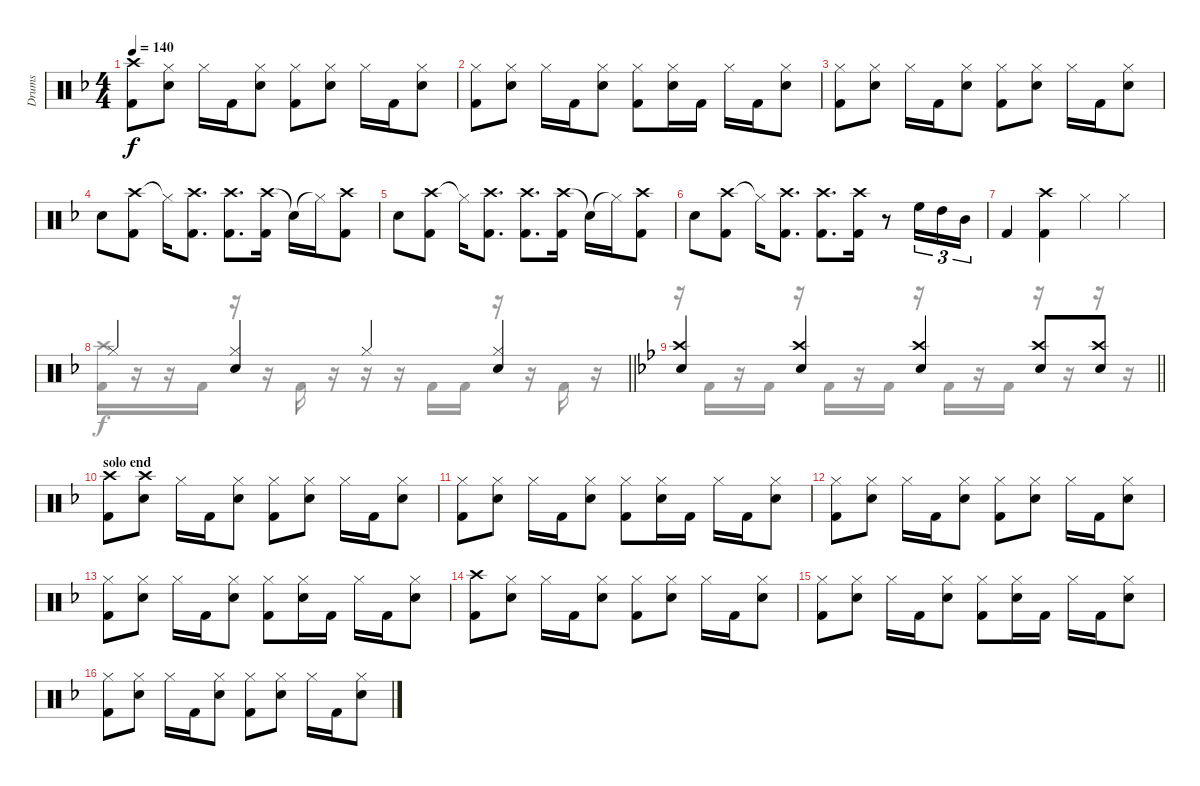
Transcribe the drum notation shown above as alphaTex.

\track ("Drums" "Drums") {instrument percussion}
\staff {score}
\articulation defaults
\voice
\ts (4 4)
\tempo 140
\clef neutral
\ks dminor
("Crash high (hit)" "Kick (hit) 2").8{dy f} ("Hi-Hat (closed)" "Snare (hit) 2").8 "Hi-Hat (closed)".16 "Kick (hit) 2".16 ("Hi-Hat (closed)" "Snare (hit) 2").8 ("Hi-Hat (closed)" "Kick (hit) 2").8 ("Hi-Hat (closed)" "Snare (hit) 2").8 "Hi-Hat (closed)".16 "Kick (hit) 2".16 ("Hi-Hat (closed)" "Snare (hit) 2").8 |
("Hi-Hat (closed)" "Kick (hit) 2").8 ("Hi-Hat (closed)" "Snare (hit) 2").8 "Hi-Hat (closed)".16 "Kick (hit) 2".16 ("Hi-Hat (closed)" "Snare (hit) 2").8 ("Hi-Hat (closed)" "Kick (hit) 2").8 ("Hi-Hat (closed)" "Snare (hit) 2").16 "Kick (hit) 2".16 "Hi-Hat (closed)".16 "Kick (hit) 2".16 ("Hi-Hat (closed)" "Snare (hit) 2").8 |
("Hi-Hat (closed)" "Kick (hit) 2").8 ("Hi-Hat (closed)" "Snare (hit) 2").8 "Hi-Hat (closed)".16 "Kick (hit) 2".16 ("Hi-Hat (closed)" "Snare (hit) 2").8 ("Hi-Hat (closed)" "Kick (hit) 2").8 ("Hi-Hat (closed)" "Snare (hit) 2").8 "Hi-Hat (closed)".16 "Kick (hit) 2".16 ("Hi-Hat (closed)" "Snare (hit) 2").8 |
"Snare (hit) 2".8 ("Crash high (hit)" "Kick (hit) 2").8 "Hi-Hat (closed)"{t}.16 ("Crash high (hit)" "Kick (hit) 2").8{d} ("Crash high (hit)" "Kick (hit) 2").8{d} ("Crash high (hit)" "Kick (hit) 2").16 "Snare (hit)"{t}.16 "Hi-Hat (closed)"{t}.16 ("Crash high (hit)" "Kick (hit) 2").8 |
"Snare (hit) 2".8 ("Crash high (hit)" "Kick (hit) 2").8 "Hi-Hat (closed)"{t}.16 ("Crash high (hit)" "Kick (hit) 2").8{d} ("Crash high (hit)" "Kick (hit) 2").8{d} ("Crash high (hit)" "Kick (hit) 2").16 "Snare (hit)"{t}.16 "Hi-Hat (closed)"{t}.16 ("Crash high (hit)" "Kick (hit) 2").8 |
"Snare (hit) 2".8 ("Crash high (hit)" "Kick (hit) 2").8 "Hi-Hat (closed)"{t}.16 ("Crash high (hit)" "Kick (hit) 2").8{d} ("Crash high (hit)" "Kick (hit) 2").8{d} ("Crash high (hit)" "Kick (hit) 2").16 r.8 "High Floor Tom (hit)".16{tu (3 2)} "High Tom (hit)".16{tu (3 2)} "Mid Tom (hit)".16{tu (3 2)} |
"Kick (hit) 2".4 ("Crash high (hit)" "Kick (hit) 2").4 "Hi-Hat (closed)".4 "Hi-Hat (closed)".4 |
\barLineRight lightlight "Hi-Hat (closed)".4
("Hi-Hat (closed)" "Snare (hit) 2").4 "Hi-Hat (closed)".4 ("Hi-Hat (closed)" "Snare (hit) 2").4 |
\barLineRight lightlight
\ks gminor
("Crash high (hit)" "Snare (hit) 2").4 ("Crash high (hit)" "Snare (hit) 2").4 ("Crash high (hit)" "Snare (hit) 2").4 ("Crash high (hit)" "Snare (hit) 2").8 ("Crash high (hit)" "Snare (hit) 2").8 |
\section ("" "solo end")
\ks dminor
("Crash high (hit)" "Kick (hit) 2").8 ("Crash high (hit)" "Snare (hit) 2").8 "Hi-Hat (closed)".16 "Kick (hit) 2".16 ("Hi-Hat (closed)" "Snare (hit) 2").8 ("Hi-Hat (closed)" "Kick (hit) 2").8 ("Hi-Hat (closed)" "Snare (hit) 2").8 "Hi-Hat (closed)".16 "Kick (hit) 2".16 ("Hi-Hat (closed)" "Snare (hit) 2").8 |
("Hi-Hat (closed)" "Kick (hit) 2").8 ("Hi-Hat (closed)" "Snare (hit) 2").8 "Hi-Hat (closed)".16 "Kick (hit) 2".16 ("Hi-Hat (closed)" "Snare (hit) 2").8 ("Hi-Hat (closed)" "Kick (hit) 2").8 ("Hi-Hat (closed)" "Snare (hit) 2").16 "Kick (hit) 2".16 "Hi-Hat (closed)".16 "Kick (hit) 2".16 ("Hi-Hat (closed)" "Snare (hit) 2").8 |
("Hi-Hat (closed)" "Kick (hit) 2").8 ("Hi-Hat (closed)" "Snare (hit) 2").8 "Hi-Hat (closed)".16 "Kick (hit) 2".16 ("Hi-Hat (closed)" "Snare (hit) 2").8 ("Hi-Hat (closed)" "Kick (hit) 2").8 ("Hi-Hat (closed)" "Snare (hit) 2").8 "Hi-Hat (closed)".16 "Kick (hit) 2".16 ("Hi-Hat (closed)" "Snare (hit) 2").8 |
("Hi-Hat (closed)" "Kick (hit) 2").8 ("Hi-Hat (closed)" "Snare (hit) 2").8 "Hi-Hat (closed)".16 "Kick (hit) 2".16 ("Hi-Hat (closed)" "Snare (hit) 2").8 ("Hi-Hat (closed)" "Kick (hit) 2").8 ("Hi-Hat (closed)" "Snare (hit) 2").16 "Kick (hit) 2".16 "Hi-Hat (closed)".16 "Kick (hit) 2".16 ("Hi-Hat (closed)" "Snare (hit) 2").8 |
("Crash high (hit)" "Kick (hit) 2").8 ("Hi-Hat (closed)" "Snare (hit) 2").8 "Hi-Hat (closed)".16 "Kick (hit) 2".16 ("Hi-Hat (closed)" "Snare (hit) 2").8 ("Hi-Hat (closed)" "Kick (hit) 2").8 ("Hi-Hat (closed)" "Snare (hit) 2").8 "Hi-Hat (closed)".16 "Kick (hit) 2".16 ("Hi-Hat (closed)" "Snare (hit) 2").8 |
("Hi-Hat (closed)" "Kick (hit) 2").8 ("Hi-Hat (closed)" "Snare (hit) 2").8 "Hi-Hat (closed)".16 "Kick (hit) 2".16 ("Hi-Hat (closed)" "Snare (hit) 2").8 ("Hi-Hat (closed)" "Kick (hit) 2").8 ("Hi-Hat (closed)" "Snare (hit) 2").16 "Kick (hit) 2".16 "Hi-Hat (closed)".16 "Kick (hit) 2".16 ("Hi-Hat (closed)" "Snare (hit) 2").8 |
("Hi-Hat (closed)" "Kick (hit) 2").8 ("Hi-Hat (closed)" "Snare (hit) 2").8 "Hi-Hat (closed)".16 "Kick (hit) 2".16 ("Hi-Hat (closed)" "Snare (hit) 2").8 ("Hi-Hat (closed)" "Kick (hit) 2").8 ("Hi-Hat (closed)" "Snare (hit) 2").8 "Hi-Hat (closed)".16 "Kick (hit) 2".16 ("Hi-Hat (closed)" "Snare (hit) 2").8
\voice
\clef neutral
\ottava regular
\simile none
\ks dminor
|
|
|
|
|
|
|
\barLineRight lightlight
("Crash high (hit)" "Kick (hit) 2").16 r.16 r.16 "Kick (hit) 2".16 r.16 r.16 "Kick (hit) 2".16 r.16 r.16 r.16 "Kick (hit) 2".16 "Kick (hit) 2".16 r.16 r.16 "Kick (hit) 2".16 r.16 |
\barLineRight lightlight
\ks gminor
r.16 "Kick (hit) 2".16 r.16 "Kick (hit) 2".16 r.16 "Kick (hit) 2".16 r.16 "Kick (hit) 2".16 r.16 "Kick (hit) 2".16 r.16 "Kick (hit) 2".16 r.16 r.16 r.16 r.16 |
\ks dminor
|
|
|
|
|
|
